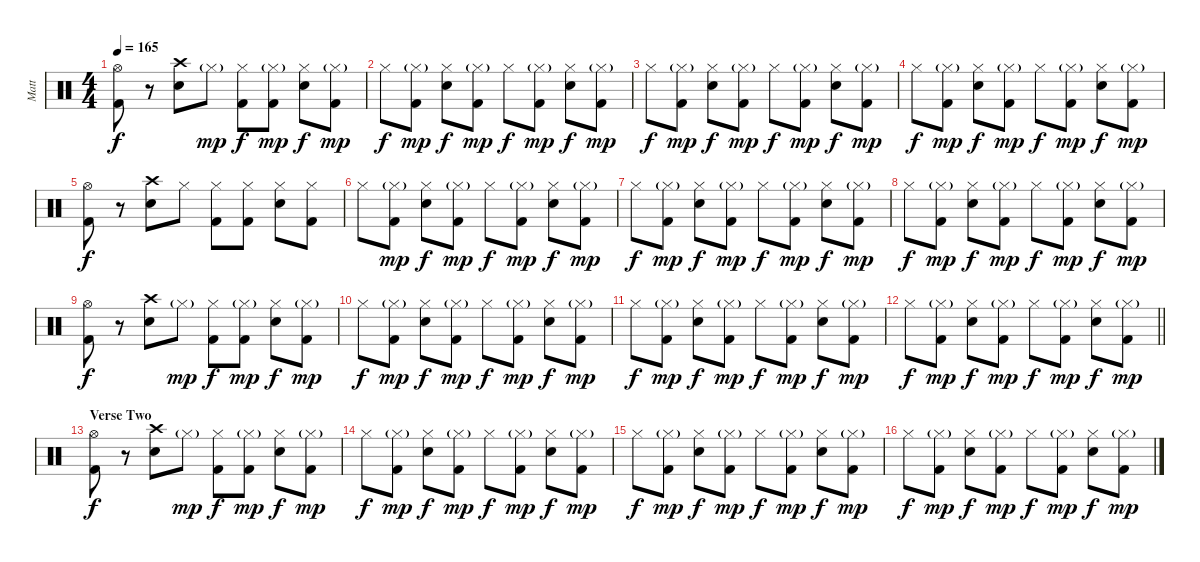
\track ("Matt" "Matt") {instrument percussion}
\staff {score}
\articulation defaults
\ts (4 4)
\tempo 165
\clef neutral
\ks c
("Hi-Hat (open)" "Kick (hit) 2").8{dy f} r.8 ("Crash high (hit)" "Snare (hit) 2").8 "Hi-Hat (closed)"{g}.8{dy mp} ("Hi-Hat (closed)" "Kick (hit) 2").8{dy f} ("Hi-Hat (closed)"{g} "Kick (hit) 2").8{dy mp} ("Hi-Hat (closed)" "Snare (hit) 2").8{dy f} ("Hi-Hat (closed)"{g} "Kick (hit) 2").8{dy mp} |
"Hi-Hat (closed)".8{dy f} ("Hi-Hat (closed)"{g} "Kick (hit) 2").8{dy mp} ("Hi-Hat (closed)" "Snare (hit) 2").8{dy f} ("Hi-Hat (closed)"{g} "Kick (hit) 2").8{dy mp} "Hi-Hat (closed)".8{dy f} ("Hi-Hat (closed)"{g} "Kick (hit) 2").8{dy mp} ("Hi-Hat (closed)" "Snare (hit) 2").8{dy f} ("Hi-Hat (closed)"{g} "Kick (hit) 2").8{dy mp} |
"Hi-Hat (closed)".8{dy f} ("Hi-Hat (closed)"{g} "Kick (hit) 2").8{dy mp} ("Hi-Hat (closed)" "Snare (hit) 2").8{dy f} ("Hi-Hat (closed)"{g} "Kick (hit) 2").8{dy mp} "Hi-Hat (closed)".8{dy f} ("Hi-Hat (closed)"{g} "Kick (hit) 2").8{dy mp} ("Hi-Hat (closed)" "Snare (hit) 2").8{dy f} ("Hi-Hat (closed)"{g} "Kick (hit) 2").8{dy mp} |
"Hi-Hat (closed)".8{dy f} ("Hi-Hat (closed)"{g} "Kick (hit) 2").8{dy mp} ("Hi-Hat (closed)" "Snare (hit) 2").8{dy f} ("Hi-Hat (closed)"{g} "Kick (hit) 2").8{dy mp} "Hi-Hat (closed)".8{dy f} ("Hi-Hat (closed)"{g} "Kick (hit) 2").8{dy mp} ("Hi-Hat (closed)" "Snare (hit) 2").8{dy f} ("Hi-Hat (closed)"{g} "Kick (hit) 2").8{dy mp} |
("Hi-Hat (open)" "Kick (hit) 2").8{dy f} r.8 ("Crash high (hit)" "Snare (hit) 2").8 "Hi-Hat (closed)".8 ("Hi-Hat (closed)" "Kick (hit) 2").8 ("Hi-Hat (closed)" "Kick (hit) 2").8 ("Hi-Hat (closed)" "Snare (hit) 2").8 ("Hi-Hat (closed)" "Kick (hit) 2").8 |
"Hi-Hat (closed)".8 ("Hi-Hat (closed)"{g} "Kick (hit) 2").8{dy mp} ("Hi-Hat (closed)" "Snare (hit) 2").8{dy f} ("Hi-Hat (closed)"{g} "Kick (hit) 2").8{dy mp} "Hi-Hat (closed)".8{dy f} ("Hi-Hat (closed)"{g} "Kick (hit) 2").8{dy mp} ("Hi-Hat (closed)" "Snare (hit) 2").8{dy f} ("Hi-Hat (closed)"{g} "Kick (hit) 2").8{dy mp} |
"Hi-Hat (closed)".8{dy f} ("Hi-Hat (closed)"{g} "Kick (hit) 2").8{dy mp} ("Hi-Hat (closed)" "Snare (hit) 2").8{dy f} ("Hi-Hat (closed)"{g} "Kick (hit) 2").8{dy mp} "Hi-Hat (closed)".8{dy f} ("Hi-Hat (closed)"{g} "Kick (hit) 2").8{dy mp} ("Hi-Hat (closed)" "Snare (hit) 2").8{dy f} ("Hi-Hat (closed)"{g} "Kick (hit) 2").8{dy mp} |
"Hi-Hat (closed)".8{dy f} ("Hi-Hat (closed)"{g} "Kick (hit) 2").8{dy mp} ("Hi-Hat (closed)" "Snare (hit) 2").8{dy f} ("Hi-Hat (closed)"{g} "Kick (hit) 2").8{dy mp} "Hi-Hat (closed)".8{dy f} ("Hi-Hat (closed)"{g} "Kick (hit) 2").8{dy mp} ("Hi-Hat (closed)" "Snare (hit) 2").8{dy f} ("Hi-Hat (closed)"{g} "Kick (hit) 2").8{dy mp} |
("Hi-Hat (open)" "Kick (hit) 2").8{dy f} r.8 ("Crash high (hit)" "Snare (hit) 2").8 "Hi-Hat (closed)"{g}.8{dy mp} ("Hi-Hat (closed)" "Kick (hit) 2").8{dy f} ("Hi-Hat (closed)"{g} "Kick (hit) 2").8{dy mp} ("Hi-Hat (closed)" "Snare (hit) 2").8{dy f} ("Hi-Hat (closed)"{g} "Kick (hit) 2").8{dy mp} |
"Hi-Hat (closed)".8{dy f} ("Hi-Hat (closed)"{g} "Kick (hit) 2").8{dy mp} ("Hi-Hat (closed)" "Snare (hit) 2").8{dy f} ("Hi-Hat (closed)"{g} "Kick (hit) 2").8{dy mp} "Hi-Hat (closed)".8{dy f} ("Hi-Hat (closed)"{g} "Kick (hit) 2").8{dy mp} ("Hi-Hat (closed)" "Snare (hit) 2").8{dy f} ("Hi-Hat (closed)"{g} "Kick (hit) 2").8{dy mp} |
"Hi-Hat (closed)".8{dy f} ("Hi-Hat (closed)"{g} "Kick (hit) 2").8{dy mp} ("Hi-Hat (closed)" "Snare (hit) 2").8{dy f} ("Hi-Hat (closed)"{g} "Kick (hit) 2").8{dy mp} "Hi-Hat (closed)".8{dy f} ("Hi-Hat (closed)"{g} "Kick (hit) 2").8{dy mp} ("Hi-Hat (closed)" "Snare (hit) 2").8{dy f} ("Hi-Hat (closed)"{g} "Kick (hit) 2").8{dy mp} |
\barLineRight lightlight "Hi-Hat (closed)".8{dy f}
("Hi-Hat (closed)"{g} "Kick (hit) 2").8{dy mp} ("Hi-Hat (closed)" "Snare (hit) 2").8{dy f} ("Hi-Hat (closed)"{g} "Kick (hit) 2").8{dy mp} "Hi-Hat (closed)".8{dy f} ("Hi-Hat (closed)"{g} "Kick (hit) 2").8{dy mp} ("Hi-Hat (closed)" "Snare (hit) 2").8{dy f} ("Hi-Hat (closed)"{g} "Kick (hit) 2").8{dy mp} |
\section ("" "Verse Two")
("Hi-Hat (open)" "Kick (hit) 2").8{dy f} r.8 ("Crash high (hit)" "Snare (hit) 2").8 "Hi-Hat (closed)"{g}.8{dy mp} ("Hi-Hat (closed)" "Kick (hit) 2").8{dy f} ("Hi-Hat (closed)"{g} "Kick (hit) 2").8{dy mp} ("Hi-Hat (closed)" "Snare (hit) 2").8{dy f} ("Hi-Hat (closed)"{g} "Kick (hit) 2").8{dy mp} |
"Hi-Hat (closed)".8{dy f} ("Hi-Hat (closed)"{g} "Kick (hit) 2").8{dy mp} ("Hi-Hat (closed)" "Snare (hit) 2").8{dy f} ("Hi-Hat (closed)"{g} "Kick (hit) 2").8{dy mp} "Hi-Hat (closed)".8{dy f} ("Hi-Hat (closed)"{g} "Kick (hit) 2").8{dy mp} ("Hi-Hat (closed)" "Snare (hit) 2").8{dy f} ("Hi-Hat (closed)"{g} "Kick (hit) 2").8{dy mp} |
"Hi-Hat (closed)".8{dy f} ("Hi-Hat (closed)"{g} "Kick (hit) 2").8{dy mp} ("Hi-Hat (closed)" "Snare (hit) 2").8{dy f} ("Hi-Hat (closed)"{g} "Kick (hit) 2").8{dy mp} "Hi-Hat (closed)".8{dy f} ("Hi-Hat (closed)"{g} "Kick (hit) 2").8{dy mp} ("Hi-Hat (closed)" "Snare (hit) 2").8{dy f} ("Hi-Hat (closed)"{g} "Kick (hit) 2").8{dy mp} |
"Hi-Hat (closed)".8{dy f} ("Hi-Hat (closed)"{g} "Kick (hit) 2").8{dy mp} ("Hi-Hat (closed)" "Snare (hit) 2").8{dy f} ("Hi-Hat (closed)"{g} "Kick (hit) 2").8{dy mp} "Hi-Hat (closed)".8{dy f} ("Hi-Hat (closed)"{g} "Kick (hit) 2").8{dy mp} ("Hi-Hat (closed)" "Snare (hit) 2").8{dy f} ("Hi-Hat (closed)"{g} "Kick (hit) 2").8{dy mp}
